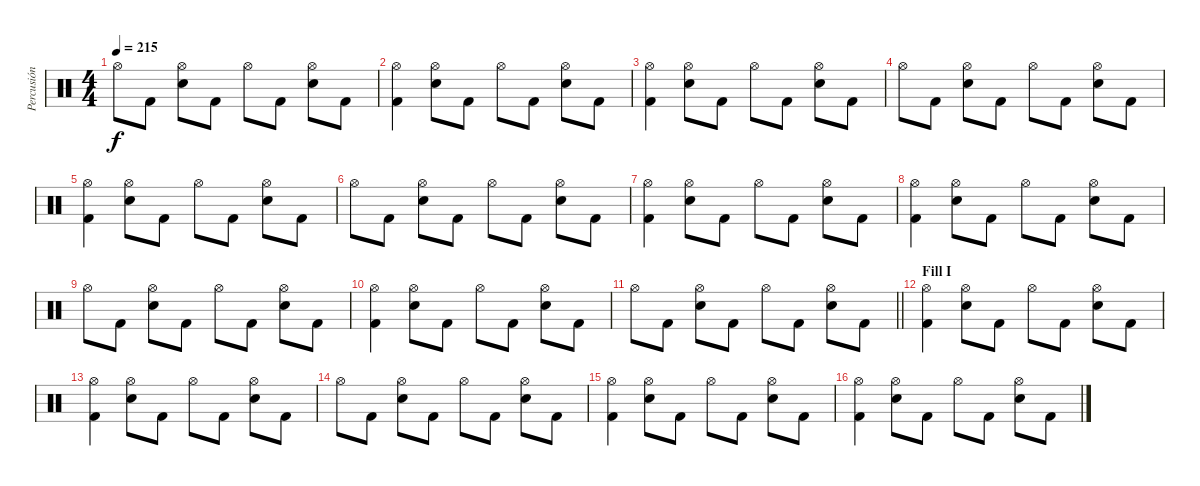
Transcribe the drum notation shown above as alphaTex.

\track ("Percusión" "Percusión") {instrument percussion}
\staff {score}
\articulation defaults
\ts (4 4)
\tempo 215
\clef neutral
\ks c "Hi-Hat (open)".8{dy f} "Kick (hit) 2".8
("Hi-Hat (open)" "Electric Snare (hit)").8 "Kick (hit) 2".8 "Hi-Hat (open)".8 "Kick (hit) 2".8 ("Hi-Hat (open)" "Electric Snare (hit)").8 "Kick (hit) 2".8 |
("Hi-Hat (open)" "Kick (hit) 2").4 ("Hi-Hat (open)" "Electric Snare (hit)").8 "Kick (hit) 2".8 "Hi-Hat (open)".8 "Kick (hit) 2".8 ("Hi-Hat (open)" "Electric Snare (hit)").8 "Kick (hit) 2".8 |
("Hi-Hat (open)" "Kick (hit) 2").4 ("Hi-Hat (open)" "Electric Snare (hit)").8 "Kick (hit) 2".8 "Hi-Hat (open)".8 "Kick (hit) 2".8 ("Hi-Hat (open)" "Electric Snare (hit)").8 "Kick (hit) 2".8 |
"Hi-Hat (open)".8 "Kick (hit) 2".8 ("Hi-Hat (open)" "Electric Snare (hit)").8 "Kick (hit) 2".8 "Hi-Hat (open)".8 "Kick (hit) 2".8 ("Hi-Hat (open)" "Electric Snare (hit)").8 "Kick (hit) 2".8 |
("Hi-Hat (open)" "Kick (hit) 2").4 ("Hi-Hat (open)" "Electric Snare (hit)").8 "Kick (hit) 2".8 "Hi-Hat (open)".8 "Kick (hit) 2".8 ("Hi-Hat (open)" "Electric Snare (hit)").8 "Kick (hit) 2".8 |
"Hi-Hat (open)".8 "Kick (hit) 2".8 ("Hi-Hat (open)" "Electric Snare (hit)").8 "Kick (hit) 2".8 "Hi-Hat (open)".8 "Kick (hit) 2".8 ("Hi-Hat (open)" "Electric Snare (hit)").8 "Kick (hit) 2".8 |
("Hi-Hat (open)" "Kick (hit) 2").4 ("Hi-Hat (open)" "Electric Snare (hit)").8 "Kick (hit) 2".8 "Hi-Hat (open)".8 "Kick (hit) 2".8 ("Hi-Hat (open)" "Electric Snare (hit)").8 "Kick (hit) 2".8 |
("Hi-Hat (open)" "Kick (hit) 2").4 ("Hi-Hat (open)" "Electric Snare (hit)").8 "Kick (hit) 2".8 "Hi-Hat (open)".8 "Kick (hit) 2".8 ("Hi-Hat (open)" "Electric Snare (hit)").8 "Kick (hit) 2".8 |
"Hi-Hat (open)".8 "Kick (hit) 2".8 ("Hi-Hat (open)" "Electric Snare (hit)").8 "Kick (hit) 2".8 "Hi-Hat (open)".8 "Kick (hit) 2".8 ("Hi-Hat (open)" "Electric Snare (hit)").8 "Kick (hit) 2".8 |
("Hi-Hat (open)" "Kick (hit) 2").4 ("Hi-Hat (open)" "Electric Snare (hit)").8 "Kick (hit) 2".8 "Hi-Hat (open)".8 "Kick (hit) 2".8 ("Hi-Hat (open)" "Electric Snare (hit)").8 "Kick (hit) 2".8 |
\barLineRight lightlight "Hi-Hat (open)".8 "Kick (hit) 2".8
("Hi-Hat (open)" "Electric Snare (hit)").8 "Kick (hit) 2".8 "Hi-Hat (open)".8 "Kick (hit) 2".8 ("Hi-Hat (open)" "Electric Snare (hit)").8 "Kick (hit) 2".8 |
\section ("" "Fill I")
("Hi-Hat (open)" "Kick (hit) 2").4 ("Hi-Hat (open)" "Electric Snare (hit)").8 "Kick (hit) 2".8 "Hi-Hat (open)".8 "Kick (hit) 2".8 ("Hi-Hat (open)" "Electric Snare (hit)").8 "Kick (hit) 2".8 |
("Hi-Hat (open)" "Kick (hit) 2").4 ("Hi-Hat (open)" "Electric Snare (hit)").8 "Kick (hit) 2".8 "Hi-Hat (open)".8 "Kick (hit) 2".8 ("Hi-Hat (open)" "Electric Snare (hit)").8 "Kick (hit) 2".8 |
"Hi-Hat (open)".8 "Kick (hit) 2".8 ("Hi-Hat (open)" "Electric Snare (hit)").8 "Kick (hit) 2".8 "Hi-Hat (open)".8 "Kick (hit) 2".8 ("Hi-Hat (open)" "Electric Snare (hit)").8 "Kick (hit) 2".8 |
("Hi-Hat (open)" "Kick (hit) 2").4 ("Hi-Hat (open)" "Electric Snare (hit)").8 "Kick (hit) 2".8 "Hi-Hat (open)".8 "Kick (hit) 2".8 ("Hi-Hat (open)" "Electric Snare (hit)").8 "Kick (hit) 2".8 |
("Hi-Hat (open)" "Kick (hit) 2").4 ("Hi-Hat (open)" "Electric Snare (hit)").8 "Kick (hit) 2".8 "Hi-Hat (open)".8 "Kick (hit) 2".8 ("Hi-Hat (open)" "Electric Snare (hit)").8 "Kick (hit) 2".8
